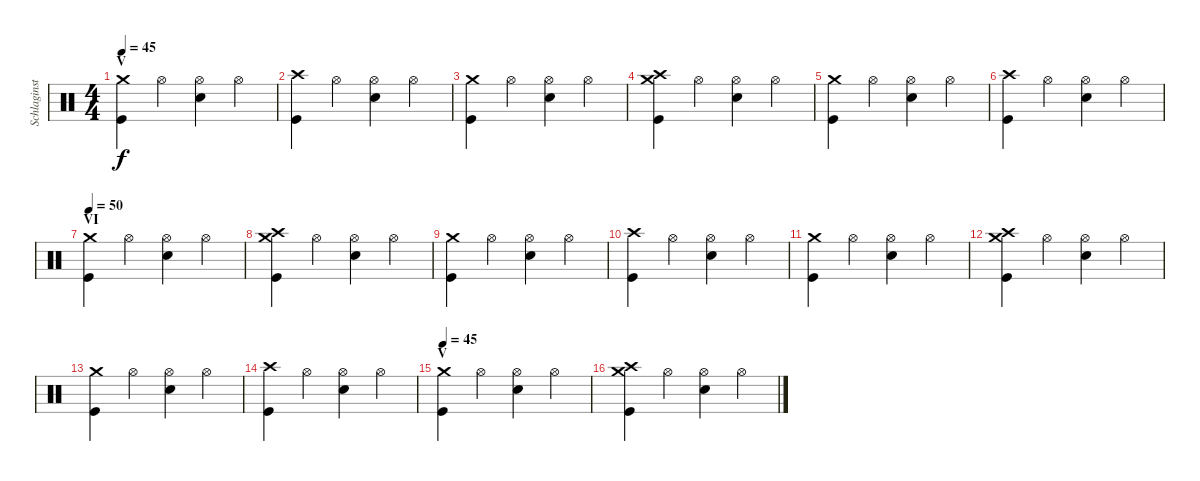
\track ("Schlaginstrumente - Auswahl" "Schlaginst") {instrument percussion}
\staff {score}
\articulation defaults
\ts (4 4)
\section ("" "V")
\tempo 45
\clef neutral
\ks c
("Crash medium (hit)" "Kick (hit)").4{dy f} "Hi-Hat (open)".4 ("Hi-Hat (open)" "Snare (hit) 2").4 "Hi-Hat (open)".4 |
("Crash high (hit)" "Kick (hit)").4 "Hi-Hat (open)".4 ("Hi-Hat (open)" "Snare (hit) 2").4 "Hi-Hat (open)".4 |
("Crash medium (hit)" "Kick (hit)").4 "Hi-Hat (open)".4 ("Hi-Hat (open)" "Snare (hit) 2").4 "Hi-Hat (open)".4 |
("Crash medium (hit)" "Crash high (hit)" "Kick (hit)").4 "Hi-Hat (open)".4 ("Hi-Hat (open)" "Snare (hit) 2").4 "Hi-Hat (open)".4 |
("Crash medium (hit)" "Kick (hit)").4 "Hi-Hat (open)".4 ("Hi-Hat (open)" "Snare (hit) 2").4 "Hi-Hat (open)".4 |
("Crash high (hit)" "Kick (hit)").4 "Hi-Hat (open)".4 ("Hi-Hat (open)" "Snare (hit) 2").4 "Hi-Hat (open)".4 |
\section ("" "VI")
\tempo 50
("Crash medium (hit)" "Kick (hit)").4 "Hi-Hat (open)".4 ("Hi-Hat (open)" "Snare (hit) 2").4 "Hi-Hat (open)".4 |
("Crash medium (hit)" "Crash high (hit)" "Kick (hit)").4 "Hi-Hat (open)".4 ("Hi-Hat (open)" "Snare (hit) 2").4 "Hi-Hat (open)".4 |
("Crash medium (hit)" "Kick (hit)").4 "Hi-Hat (open)".4 ("Hi-Hat (open)" "Snare (hit) 2").4 "Hi-Hat (open)".4 |
("Crash high (hit)" "Kick (hit)").4 "Hi-Hat (open)".4 ("Hi-Hat (open)" "Snare (hit) 2").4 "Hi-Hat (open)".4 |
("Crash medium (hit)" "Kick (hit)").4 "Hi-Hat (open)".4 ("Hi-Hat (open)" "Snare (hit) 2").4 "Hi-Hat (open)".4 |
("Crash medium (hit)" "Crash high (hit)" "Kick (hit)").4 "Hi-Hat (open)".4 ("Hi-Hat (open)" "Snare (hit) 2").4 "Hi-Hat (open)".4 |
("Crash medium (hit)" "Kick (hit)").4 "Hi-Hat (open)".4 ("Hi-Hat (open)" "Snare (hit) 2").4 "Hi-Hat (open)".4 |
("Crash high (hit)" "Kick (hit)").4 "Hi-Hat (open)".4 ("Hi-Hat (open)" "Snare (hit) 2").4 "Hi-Hat (open)".4 |
\section ("" "V")
\tempo 45
("Crash medium (hit)" "Kick (hit)").4 "Hi-Hat (open)".4 ("Hi-Hat (open)" "Snare (hit) 2").4 "Hi-Hat (open)".4 |
("Crash medium (hit)" "Crash high (hit)" "Kick (hit)").4 "Hi-Hat (open)".4 ("Hi-Hat (open)" "Snare (hit) 2").4 "Hi-Hat (open)".4
